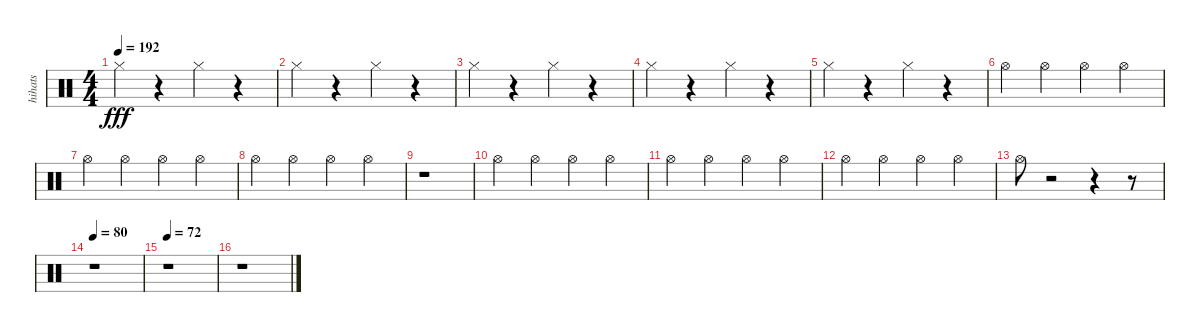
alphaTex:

\track ("hihats" "hihats") {instrument percussion}
\staff {score}
\articulation defaults
\ts (4 4)
\tempo 192
\clef neutral
\ks c "Hi-Hat (closed)".4{dy fff}
r.4 "Hi-Hat (closed)".4 r.4 |
"Hi-Hat (closed)".4 r.4 "Hi-Hat (closed)".4 r.4 |
"Hi-Hat (closed)".4 r.4 "Hi-Hat (closed)".4 r.4 |
"Hi-Hat (closed)".4 r.4 "Hi-Hat (closed)".4 r.4 |
"Hi-Hat (closed)".4 r.4 "Hi-Hat (closed)".4 r.4 |
"Hi-Hat (open)".4 "Hi-Hat (open)".4 "Hi-Hat (open)".4 "Hi-Hat (open)".4 |
"Hi-Hat (open)".4 "Hi-Hat (open)".4 "Hi-Hat (open)".4 "Hi-Hat (open)".4 |
"Hi-Hat (open)".4 "Hi-Hat (open)".4 "Hi-Hat (open)".4 "Hi-Hat (open)".4 |
r.1 |
"Hi-Hat (open)".4 "Hi-Hat (open)".4 "Hi-Hat (open)".4 "Hi-Hat (open)".4 |
"Hi-Hat (open)".4 "Hi-Hat (open)".4 "Hi-Hat (open)".4 "Hi-Hat (open)".4 |
"Hi-Hat (open)".4 "Hi-Hat (open)".4 "Hi-Hat (open)".4 "Hi-Hat (open)".4 |
"Hi-Hat (open)".8 r.2 r.4 r.8 |
\tempo 80
r.1 |
\tempo 72
r.1 |
r.1
